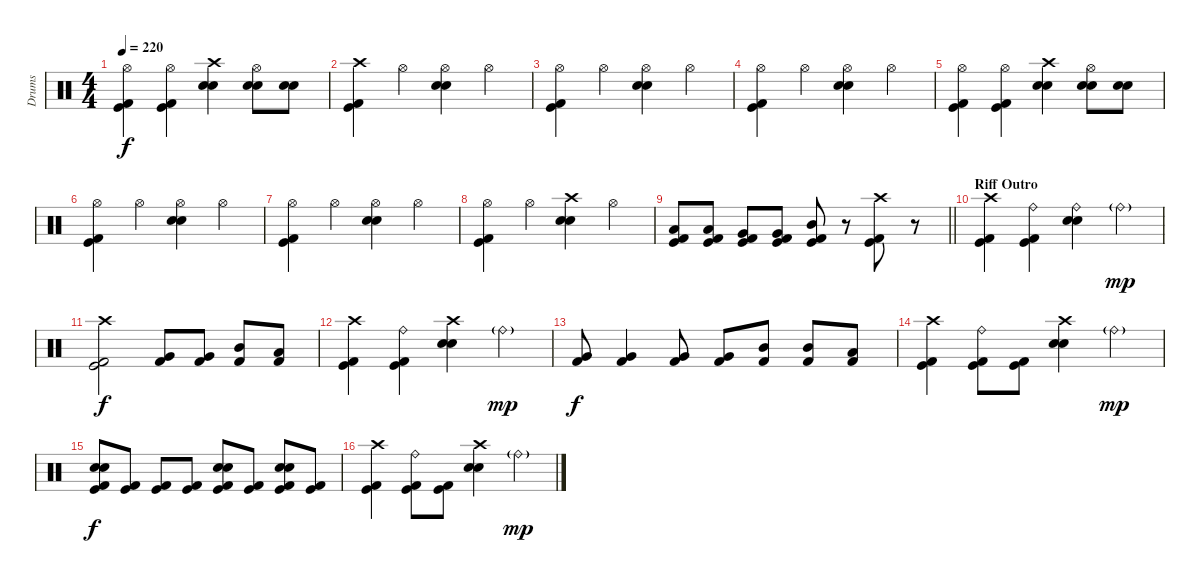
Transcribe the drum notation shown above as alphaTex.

\track ("Drums" "Drums") {instrument percussion}
\staff {score}
\articulation defaults
\ts (4 4)
\tempo 220
\clef neutral
\ks c
("Hi-Hat (open)" "Kick (hit) 2" "Kick (hit)").4{dy f} ("Hi-Hat (open)" "Kick (hit) 2" "Kick (hit)").4 ("Crash high (hit)" "Electric Snare (hit)" "Snare (hit) 2").4 ("Hi-Hat (open)" "Electric Snare (hit)" "Snare (hit) 2").8 ("Electric Snare (hit)" "Snare (hit) 2").8 |
("Crash high (hit)" "Kick (hit) 2" "Kick (hit)").4 "Hi-Hat (open)".4 ("Hi-Hat (open)" "Electric Snare (hit)" "Snare (hit) 2").4 "Hi-Hat (open)".4 |
("Hi-Hat (open)" "Kick (hit) 2" "Kick (hit)").4 "Hi-Hat (open)".4 ("Hi-Hat (open)" "Electric Snare (hit)" "Snare (hit) 2").4 "Hi-Hat (open)".4 |
("Hi-Hat (open)" "Kick (hit) 2" "Kick (hit)").4 "Hi-Hat (open)".4 ("Hi-Hat (open)" "Electric Snare (hit)" "Snare (hit) 2").4 "Hi-Hat (open)".4 |
("Hi-Hat (open)" "Kick (hit) 2" "Kick (hit)").4 ("Hi-Hat (open)" "Kick (hit) 2" "Kick (hit)").4 ("Crash high (hit)" "Electric Snare (hit)" "Snare (hit) 2").4 ("Hi-Hat (open)" "Electric Snare (hit)" "Snare (hit) 2").8 ("Electric Snare (hit)" "Snare (hit) 2").8 |
("Hi-Hat (open)" "Kick (hit) 2" "Kick (hit)").4 "Hi-Hat (open)".4 ("Hi-Hat (open)" "Electric Snare (hit)" "Snare (hit) 2").4 "Hi-Hat (open)".4 |
("Hi-Hat (open)" "Kick (hit) 2" "Kick (hit)").4 "Hi-Hat (open)".4 ("Hi-Hat (open)" "Electric Snare (hit)" "Snare (hit) 2").4 "Hi-Hat (open)".4 |
("Hi-Hat (open)" "Kick (hit) 2" "Kick (hit)").4 "Hi-Hat (open)".4 ("Crash high (hit)" "Electric Snare (hit)" "Snare (hit) 2").4 "Hi-Hat (open)".4 |
\barLineRight lightlight
("Low Tom (hit)" "Kick (hit)" "Kick (hit) 2").8 ("Low Tom (hit)" "Kick (hit)" "Kick (hit) 2").8 ("Very Low Tom (hit)" "Kick (hit)" "Kick (hit) 2").8 ("Very Low Tom (hit)" "Kick (hit)" "Kick (hit) 2").8 ("Mid Tom (hit)" "Kick (hit)" "Kick (hit) 2").8 r.8 ("Crash high (hit)" "Kick (hit)" "Kick (hit) 2").8 r.8 |
\section ("" "Riff Outro")
("Crash high (hit)" "Kick (hit)" "Kick (hit) 2").4 ("Ride (bell)" "Kick (hit)" "Kick (hit) 2").4 ("Ride (bell)" "Electric Snare (hit)" "Snare (hit) 2").4 "Ride (bell)"{g}.4{dy mp} |
("Crash high (hit)" "Kick (hit)" "Kick (hit) 2").2{dy f} ("Very Low Tom (hit)" "Kick (hit) 2").8 ("Very Low Tom (hit)" "Kick (hit) 2").8 ("Mid Tom (hit)" "Kick (hit) 2").8 ("Low Tom (hit)" "Kick (hit) 2").8 |
("Crash high (hit)" "Kick (hit)" "Kick (hit) 2").4 ("Ride (bell)" "Kick (hit)" "Kick (hit) 2").4 ("Crash high (hit)" "Electric Snare (hit)" "Snare (hit) 2").4 "Ride (bell)"{g}.4{dy mp} |
("Very Low Tom (hit)" "Kick (hit) 2").8{dy f} ("Very Low Tom (hit)" "Kick (hit) 2").4 ("Very Low Tom (hit)" "Kick (hit) 2").8 ("Very Low Tom (hit)" "Kick (hit) 2").8 ("Mid Tom (hit)" "Kick (hit) 2").8 ("Mid Tom (hit)" "Kick (hit) 2").8 ("Low Tom (hit)" "Kick (hit) 2").8 |
("Crash high (hit)" "Kick (hit)" "Kick (hit) 2").4 ("Ride (bell)" "Kick (hit)" "Kick (hit) 2").8 ("Kick (hit)" "Kick (hit) 2").8 ("Crash high (hit)" "Electric Snare (hit)" "Snare (hit) 2").4 "Ride (bell)"{g}.4{dy mp} |
("Snare (hit) 2" "Electric Snare (hit)" "Kick (hit) 2" "Kick (hit)").8{dy f} ("Kick (hit) 2" "Kick (hit)").8 ("Kick (hit) 2" "Kick (hit)").8 ("Kick (hit) 2" "Kick (hit)").8 ("Snare (hit) 2" "Electric Snare (hit)" "Kick (hit) 2" "Kick (hit)").8 ("Kick (hit) 2" "Kick (hit)").8 ("Snare (hit) 2" "Electric Snare (hit)" "Kick (hit) 2" "Kick (hit)").8 ("Kick (hit) 2" "Kick (hit)").8 |
("Crash high (hit)" "Kick (hit)" "Kick (hit) 2").4 ("Ride (bell)" "Kick (hit)" "Kick (hit) 2").8 ("Kick (hit)" "Kick (hit) 2").8 ("Crash high (hit)" "Electric Snare (hit)" "Snare (hit) 2").4 "Ride (bell)"{g}.4{dy mp}
